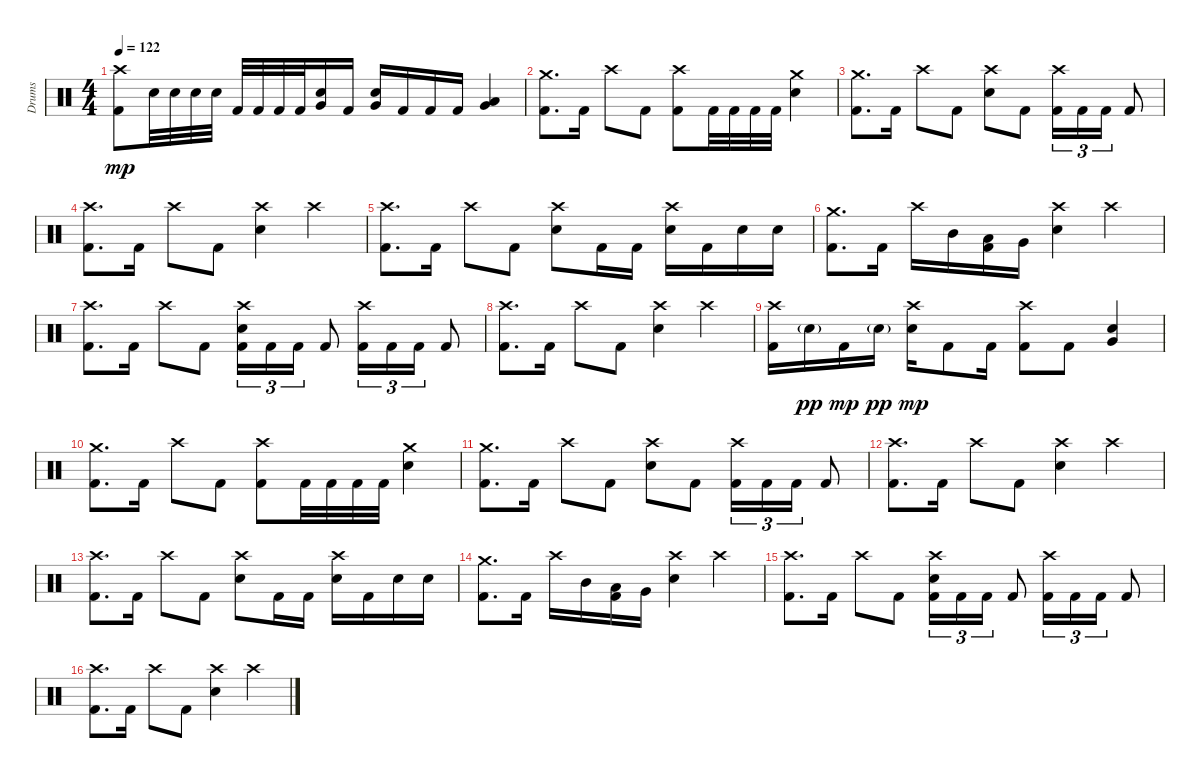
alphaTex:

\track ("Drums" "Drums") {instrument percussion}
\staff {score}
\articulation defaults
\ts (4 4)
\tempo 122
\clef neutral
\ks c
("Crash high (hit)" "Kick (hit) 2").8{dy mp} "Electric Snare (hit)".32 "Electric Snare (hit)".32 "Electric Snare (hit)".32 "Electric Snare (hit)".32 "Kick (hit) 2".32 "Kick (hit) 2".32 "Kick (hit) 2".32 "Kick (hit) 2".32 ("Very Low Tom (hit)" "Electric Snare (hit)").16 "Kick (hit) 2".16 ("Electric Snare (hit)" "Very Low Tom (hit)").16 "Kick (hit) 2".16 "Kick (hit) 2".16 "Kick (hit) 2".16 ("Very Low Tom (hit)" "Low Floor Tom (hit)").4 |
("Crash medium (hit)" "Kick (hit) 2").8{d} "Kick (hit) 2".16 "Crash high (hit)".8 "Kick (hit) 2".8 ("Crash high (hit)" "Kick (hit) 2").8 "Kick (hit) 2".32 "Kick (hit) 2".32 "Kick (hit) 2".32 "Kick (hit) 2".32 ("Electric Snare (hit)" "Crash medium (hit)").4 |
("Crash medium (hit)" "Kick (hit) 2").8{d} "Kick (hit) 2".16 "Crash high (hit)".8 "Kick (hit) 2".8 ("Crash high (hit)" "Electric Snare (hit)").8 "Kick (hit) 2".8 ("Crash high (hit)" "Kick (hit) 2").16{tu (3 2)} "Kick (hit) 2".16{tu (3 2)} "Kick (hit) 2".16{tu (3 2)} "Kick (hit) 2".8 |
("Crash high (hit)" "Kick (hit) 2").8{d} "Kick (hit) 2".16 "Crash high (hit)".8 "Kick (hit) 2".8 ("Crash high (hit)" "Electric Snare (hit)").4 "Crash high (hit)".4 |
("Crash high (hit)" "Kick (hit) 2").8{d} "Kick (hit) 2".16 "Crash high (hit)".8 "Kick (hit) 2".8 ("Crash high (hit)" "Electric Snare (hit)").8 "Kick (hit) 2".16 "Kick (hit) 2".16 ("Crash high (hit)" "Electric Snare (hit)").16 "Kick (hit) 2".16 "Electric Snare (hit)".16 "Electric Snare (hit)".16 |
("Crash medium (hit)" "Kick (hit) 2").8{d} "Kick (hit) 2".16 "Crash high (hit)".16 "Mid Tom (hit)".16 ("Low Tom (hit)" "Kick (hit) 2").16 "Very Low Tom (hit)".16 ("Crash high (hit)" "Electric Snare (hit)").4 "Crash high (hit)".4 |
("Crash high (hit)" "Kick (hit) 2").8{d} "Kick (hit) 2".16 "Crash high (hit)".8 "Kick (hit) 2".8 ("Crash high (hit)" "Electric Snare (hit)" "Kick (hit) 2").16{tu (3 2)} "Kick (hit) 2".16{tu (3 2)} "Kick (hit) 2".16{tu (3 2)} "Kick (hit) 2".8 ("Crash high (hit)" "Kick (hit) 2").16{tu (3 2)} "Kick (hit) 2".16{tu (3 2)} "Kick (hit) 2".16{tu (3 2)} "Kick (hit) 2".8 |
("Crash high (hit)" "Kick (hit) 2").8{d} "Kick (hit) 2".16 "Crash high (hit)".8 "Kick (hit) 2".8 ("Crash high (hit)" "Electric Snare (hit)").4 "Crash high (hit)".4 |
("Crash high (hit)" "Kick (hit) 2").16 "Electric Snare (hit)"{g}.16{dy pp} "Kick (hit) 2".16{dy mp} "Electric Snare (hit)"{g}.16{dy pp} ("Crash high (hit)" "Electric Snare (hit)").16{dy mp} "Kick (hit) 2".8 "Kick (hit) 2".16 ("Crash high (hit)" "Kick (hit) 2").8 "Kick (hit) 2".8 ("Very Low Tom (hit)" "Electric Snare (hit)").4 |
("Crash medium (hit)" "Kick (hit) 2").8{d} "Kick (hit) 2".16 "Crash high (hit)".8 "Kick (hit) 2".8 ("Crash high (hit)" "Kick (hit) 2").8 "Kick (hit) 2".32 "Kick (hit) 2".32 "Kick (hit) 2".32 "Kick (hit) 2".32 ("Electric Snare (hit)" "Crash medium (hit)").4 |
("Crash medium (hit)" "Kick (hit) 2").8{d} "Kick (hit) 2".16 "Crash high (hit)".8 "Kick (hit) 2".8 ("Crash high (hit)" "Electric Snare (hit)").8 "Kick (hit) 2".8 ("Crash high (hit)" "Kick (hit) 2").16{tu (3 2)} "Kick (hit) 2".16{tu (3 2)} "Kick (hit) 2".16{tu (3 2)} "Kick (hit) 2".8 |
("Crash high (hit)" "Kick (hit) 2").8{d} "Kick (hit) 2".16 "Crash high (hit)".8 "Kick (hit) 2".8 ("Crash high (hit)" "Electric Snare (hit)").4 "Crash high (hit)".4 |
("Crash high (hit)" "Kick (hit) 2").8{d} "Kick (hit) 2".16 "Crash high (hit)".8 "Kick (hit) 2".8 ("Crash high (hit)" "Electric Snare (hit)").8 "Kick (hit) 2".16 "Kick (hit) 2".16 ("Crash high (hit)" "Electric Snare (hit)").16 "Kick (hit) 2".16 "Electric Snare (hit)".16 "Electric Snare (hit)".16 |
("Crash medium (hit)" "Kick (hit) 2").8{d} "Kick (hit) 2".16 "Crash high (hit)".16 "Mid Tom (hit)".16 ("Low Tom (hit)" "Kick (hit) 2").16 "Very Low Tom (hit)".16 ("Crash high (hit)" "Electric Snare (hit)").4 "Crash high (hit)".4 |
("Crash high (hit)" "Kick (hit) 2").8{d} "Kick (hit) 2".16 "Crash high (hit)".8 "Kick (hit) 2".8 ("Crash high (hit)" "Electric Snare (hit)" "Kick (hit) 2").16{tu (3 2)} "Kick (hit) 2".16{tu (3 2)} "Kick (hit) 2".16{tu (3 2)} "Kick (hit) 2".8 ("Crash high (hit)" "Kick (hit) 2").16{tu (3 2)} "Kick (hit) 2".16{tu (3 2)} "Kick (hit) 2".16{tu (3 2)} "Kick (hit) 2".8 |
("Crash high (hit)" "Kick (hit) 2").8{d} "Kick (hit) 2".16 "Crash high (hit)".8 "Kick (hit) 2".8 ("Crash high (hit)" "Electric Snare (hit)").4 "Crash high (hit)".4
